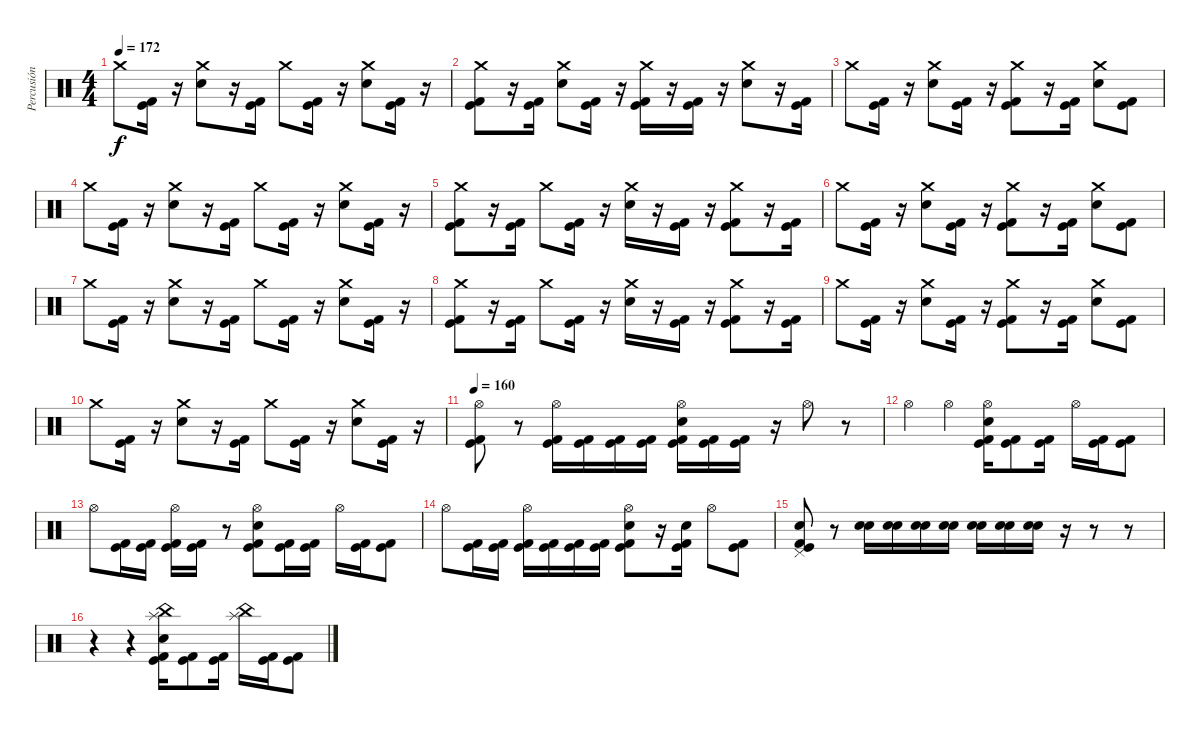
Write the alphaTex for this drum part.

\track ("Percusión" "Percusión") {instrument percussion}
\staff {score}
\articulation defaults
\ts (4 4)
\tempo 172
\clef neutral
\ks c "Crash medium (hit)".8{dy f}
("Kick (hit)" "Kick (hit) 2").16 r.16 ("Crash medium (hit)" "Electric Snare (hit)").8 r.16 ("Kick (hit) 2" "Kick (hit)").16 "Crash medium (hit)".8 ("Kick (hit) 2" "Kick (hit)").16 r.16 ("Crash medium (hit)" "Electric Snare (hit)").8 ("Kick (hit) 2" "Kick (hit)").16 r.16 |
("Crash medium (hit)" "Kick (hit)" "Kick (hit) 2").8 r.16 ("Kick (hit)" "Kick (hit) 2").16 ("Crash medium (hit)" "Electric Snare (hit)").8 ("Kick (hit)" "Kick (hit) 2").16 r.16 ("Crash medium (hit)" "Kick (hit)" "Kick (hit) 2").16 r.16 ("Kick (hit) 2" "Kick (hit)").16 r.16 ("Crash medium (hit)" "Electric Snare (hit)").8 r.16 ("Kick (hit) 2" "Kick (hit)").16 |
"Crash medium (hit)".8 ("Kick (hit)" "Kick (hit) 2").16 r.16 ("Crash medium (hit)" "Electric Snare (hit)").8 ("Kick (hit) 2" "Kick (hit)").16 r.16 ("Crash medium (hit)" "Kick (hit) 2" "Kick (hit)").8 r.16 ("Kick (hit)" "Kick (hit) 2").16 ("Crash medium (hit)" "Electric Snare (hit)").8 ("Kick (hit) 2" "Kick (hit)").8 |
"Crash medium (hit)".8 ("Kick (hit)" "Kick (hit) 2").16 r.16 ("Crash medium (hit)" "Electric Snare (hit)").8 r.16 ("Kick (hit) 2" "Kick (hit)").16 "Crash medium (hit)".8 ("Kick (hit) 2" "Kick (hit)").16 r.16 ("Crash medium (hit)" "Electric Snare (hit)").8 ("Kick (hit) 2" "Kick (hit)").16 r.16 |
("Crash medium (hit)" "Kick (hit)" "Kick (hit) 2").8 r.16 ("Kick (hit)" "Kick (hit) 2").16 "Crash medium (hit)".8 ("Kick (hit)" "Kick (hit) 2").16 r.16 ("Crash medium (hit)" "Electric Snare (hit)").16 r.16 ("Kick (hit) 2" "Kick (hit)").16 r.16 ("Crash medium (hit)" "Kick (hit)" "Kick (hit) 2").8 r.16 ("Kick (hit) 2" "Kick (hit)").16 |
"Crash medium (hit)".8 ("Kick (hit)" "Kick (hit) 2").16 r.16 ("Crash medium (hit)" "Electric Snare (hit)").8 ("Kick (hit) 2" "Kick (hit)").16 r.16 ("Crash medium (hit)" "Kick (hit) 2" "Kick (hit)").8 r.16 ("Kick (hit)" "Kick (hit) 2").16 ("Crash medium (hit)" "Electric Snare (hit)").8 ("Kick (hit) 2" "Kick (hit)").8 |
"Crash medium (hit)".8 ("Kick (hit)" "Kick (hit) 2").16 r.16 ("Crash medium (hit)" "Electric Snare (hit)").8 r.16 ("Kick (hit) 2" "Kick (hit)").16 "Crash medium (hit)".8 ("Kick (hit) 2" "Kick (hit)").16 r.16 ("Crash medium (hit)" "Electric Snare (hit)").8 ("Kick (hit) 2" "Kick (hit)").16 r.16 |
("Crash medium (hit)" "Kick (hit)" "Kick (hit) 2").8 r.16 ("Kick (hit)" "Kick (hit) 2").16 "Crash medium (hit)".8 ("Kick (hit)" "Kick (hit) 2").16 r.16 ("Crash medium (hit)" "Electric Snare (hit)").16 r.16 ("Kick (hit) 2" "Kick (hit)").16 r.16 ("Crash medium (hit)" "Kick (hit)" "Kick (hit) 2").8 r.16 ("Kick (hit) 2" "Kick (hit)").16 |
"Crash medium (hit)".8 ("Kick (hit)" "Kick (hit) 2").16 r.16 ("Crash medium (hit)" "Electric Snare (hit)").8 ("Kick (hit) 2" "Kick (hit)").16 r.16 ("Crash medium (hit)" "Kick (hit) 2" "Kick (hit)").8 r.16 ("Kick (hit)" "Kick (hit) 2").16 ("Crash medium (hit)" "Electric Snare (hit)").8 ("Kick (hit) 2" "Kick (hit)").8 |
"Crash medium (hit)".8 ("Kick (hit)" "Kick (hit) 2").16 r.16 ("Crash medium (hit)" "Electric Snare (hit)").8 r.16 ("Kick (hit) 2" "Kick (hit)").16 "Crash medium (hit)".8 ("Kick (hit) 2" "Kick (hit)").16 r.16 ("Crash medium (hit)" "Electric Snare (hit)").8 ("Kick (hit) 2" "Kick (hit)").16 r.16 |
\tempo 160
("Hi-Hat (open)" "Kick (hit) 2" "Kick (hit)").8 r.8 ("Hi-Hat (open)" "Kick (hit) 2" "Kick (hit)").16 ("Kick (hit) 2" "Kick (hit)").16 ("Kick (hit) 2" "Kick (hit)").16 ("Kick (hit) 2" "Kick (hit)").16 ("Hi-Hat (open)" "Electric Snare (hit)" "Kick (hit) 2" "Kick (hit)").16 ("Kick (hit) 2" "Kick (hit)").16 ("Kick (hit) 2" "Kick (hit)").16 r.16 "Hi-Hat (open)".8 r.8 |
"Hi-Hat (open)".4 "Hi-Hat (open)".4 ("Hi-Hat (open)" "Electric Snare (hit)" "Kick (hit) 2" "Kick (hit)").16 ("Kick (hit) 2" "Kick (hit)").8 ("Kick (hit) 2" "Kick (hit)").16 "Hi-Hat (open)".16 ("Kick (hit) 2" "Kick (hit)").16 ("Kick (hit) 2" "Kick (hit)").8 |
"Hi-Hat (open)".8 ("Kick (hit) 2" "Kick (hit)").16 ("Kick (hit) 2" "Kick (hit)").16 ("Hi-Hat (open)" "Kick (hit) 2" "Kick (hit)").16 ("Kick (hit) 2" "Kick (hit)").16 r.8 ("Hi-Hat (open)" "Electric Snare (hit)" "Kick (hit) 2" "Kick (hit)").8 ("Kick (hit) 2" "Kick (hit)").16 ("Kick (hit) 2" "Kick (hit)").16 "Hi-Hat (open)".16 ("Kick (hit) 2" "Kick (hit)").16 ("Kick (hit) 2" "Kick (hit)").8 |
"Hi-Hat (open)".8 ("Kick (hit) 2" "Kick (hit)").16 ("Kick (hit) 2" "Kick (hit)").16 ("Hi-Hat (open)" "Kick (hit) 2" "Kick (hit)").16 ("Kick (hit) 2" "Kick (hit)").16 ("Kick (hit)" "Kick (hit) 2").16 ("Kick (hit)" "Kick (hit) 2").16 ("Hi-Hat (open)" "Electric Snare (hit)" "Kick (hit) 2" "Kick (hit)").8 r.16 ("Electric Snare (hit)" "Kick (hit) 2" "Kick (hit)").16 "Hi-Hat (open)".8 ("Kick (hit) 2" "Kick (hit)").8 |
("Pedal Hi-Hat (hit)" "Electric Snare (hit)" "Kick (hit) 2" "Kick (hit)").8 r.8 ("Electric Snare (hit)" "Electric Snare (hit)").16 ("Electric Snare (hit)" "Electric Snare (hit)").16 ("Electric Snare (hit)" "Electric Snare (hit)").16 ("Electric Snare (hit)" "Electric Snare (hit)").16 ("Electric Snare (hit)" "Electric Snare (hit)").16 ("Electric Snare (hit)" "Electric Snare (hit)").16 ("Electric Snare (hit)" "Electric Snare (hit)").16 r.16 r.8 r.8 |
r.4 r.4 ("Splash (hit)" "China (hit)" "Electric Snare (hit)" "Kick (hit) 2" "Kick (hit)").16 ("Kick (hit) 2" "Kick (hit)").8 ("Kick (hit) 2" "Kick (hit)").16 ("Splash (hit)" "China (hit)").16 ("Kick (hit) 2" "Kick (hit)").16 ("Kick (hit) 2" "Kick (hit)").8
